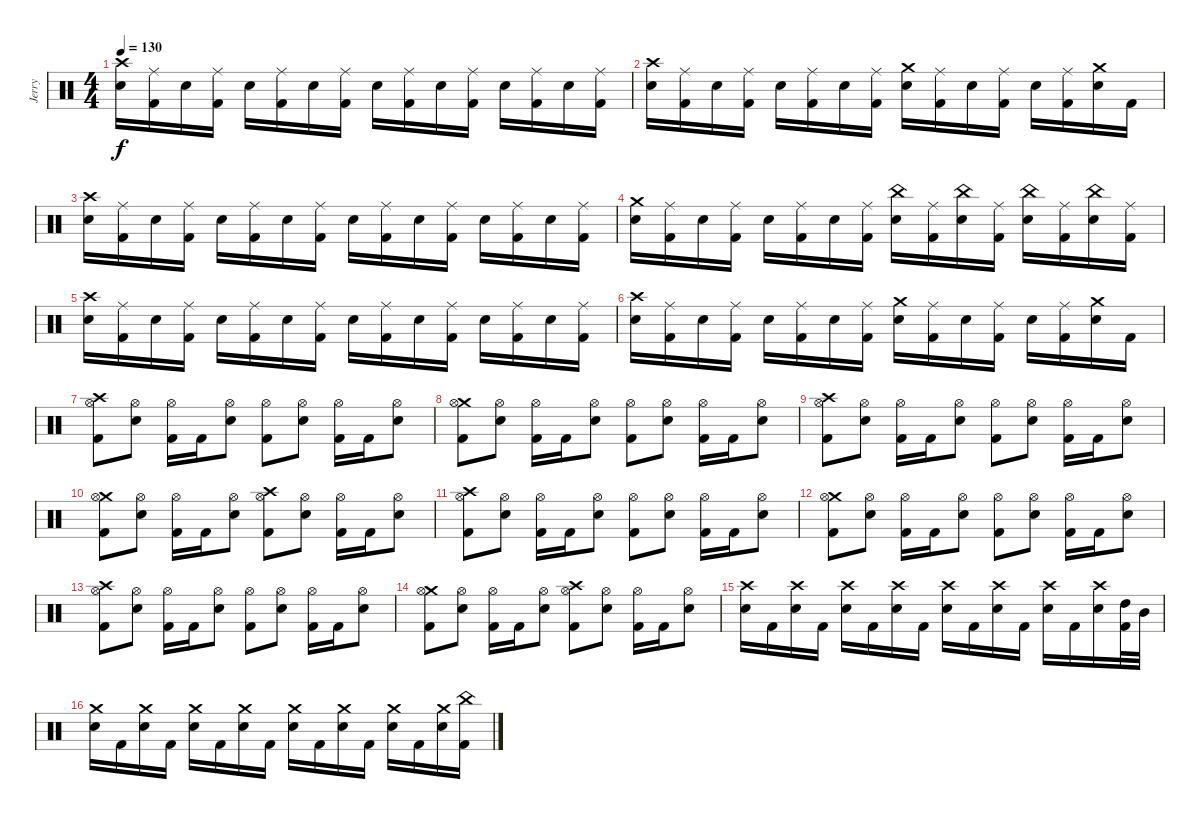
\track ("Jerry" "Jerry") {instrument percussion}
\staff {score}
\articulation defaults
\ts (4 4)
\tempo 130
\clef neutral
\ks c
("Crash high (hit)" "Electric Snare (hit)").16{dy f} ("Ride (middle)" "Kick (hit) 2").16 "Electric Snare (hit)".16 ("Ride (middle)" "Kick (hit) 2").16 "Electric Snare (hit)".16 ("Ride (middle)" "Kick (hit) 2").16 "Electric Snare (hit)".16 ("Ride (middle)" "Kick (hit) 2").16 "Electric Snare (hit)".16 ("Ride (middle)" "Kick (hit) 2").16 "Electric Snare (hit)".16 ("Ride (middle)" "Kick (hit) 2").16 "Electric Snare (hit)".16 ("Ride (middle)" "Kick (hit) 2").16 "Electric Snare (hit)".16 ("Ride (middle)" "Kick (hit) 2").16 |
("Crash high (hit)" "Electric Snare (hit)").16 ("Ride (middle)" "Kick (hit) 2").16 "Electric Snare (hit)".16 ("Ride (middle)" "Kick (hit) 2").16 "Electric Snare (hit)".16 ("Ride (middle)" "Kick (hit) 2").16 "Electric Snare (hit)".16 ("Ride (middle)" "Kick (hit) 2").16 ("Crash medium (hit)" "Electric Snare (hit)").16 ("Ride (middle)" "Kick (hit) 2").16 "Electric Snare (hit)".16 ("Ride (middle)" "Kick (hit) 2").16 "Electric Snare (hit)".16 ("Ride (middle)" "Kick (hit) 2").16 ("Crash medium (hit)" "Electric Snare (hit)").16 "Kick (hit) 2".16 |
("Crash high (hit)" "Electric Snare (hit)").16 ("Ride (middle)" "Kick (hit) 2").16 "Electric Snare (hit)".16 ("Ride (middle)" "Kick (hit) 2").16 "Electric Snare (hit)".16 ("Ride (middle)" "Kick (hit) 2").16 "Electric Snare (hit)".16 ("Ride (middle)" "Kick (hit) 2").16 "Electric Snare (hit)".16 ("Ride (middle)" "Kick (hit) 2").16 "Electric Snare (hit)".16 ("Ride (middle)" "Kick (hit) 2").16 "Electric Snare (hit)".16 ("Ride (middle)" "Kick (hit) 2").16 "Electric Snare (hit)".16 ("Ride (middle)" "Kick (hit) 2").16 |
("Crash medium (hit)" "Electric Snare (hit)").16 ("Ride (middle)" "Kick (hit) 2").16 "Electric Snare (hit)".16 ("Ride (middle)" "Kick (hit) 2").16 "Electric Snare (hit)".16 ("Ride (middle)" "Kick (hit) 2").16 "Electric Snare (hit)".16 ("Ride (middle)" "Kick (hit) 2").16 ("China (hit)" "Electric Snare (hit)").16 ("Ride (middle)" "Kick (hit) 2").16 ("China (hit)" "Electric Snare (hit)").16 ("Ride (middle)" "Kick (hit) 2").16 ("China (hit)" "Electric Snare (hit)").16 ("Ride (middle)" "Kick (hit) 2").16 ("China (hit)" "Electric Snare (hit)").16 ("Ride (middle)" "Kick (hit) 2").16 |
("Crash high (hit)" "Electric Snare (hit)").16 ("Ride (middle)" "Kick (hit) 2").16 "Electric Snare (hit)".16 ("Ride (middle)" "Kick (hit) 2").16 "Electric Snare (hit)".16 ("Ride (middle)" "Kick (hit) 2").16 "Electric Snare (hit)".16 ("Ride (middle)" "Kick (hit) 2").16 "Electric Snare (hit)".16 ("Ride (middle)" "Kick (hit) 2").16 "Electric Snare (hit)".16 ("Ride (middle)" "Kick (hit) 2").16 "Electric Snare (hit)".16 ("Ride (middle)" "Kick (hit) 2").16 "Electric Snare (hit)".16 ("Ride (middle)" "Kick (hit) 2").16 |
("Crash high (hit)" "Electric Snare (hit)").16 ("Ride (middle)" "Kick (hit) 2").16 "Electric Snare (hit)".16 ("Ride (middle)" "Kick (hit) 2").16 "Electric Snare (hit)".16 ("Ride (middle)" "Kick (hit) 2").16 "Electric Snare (hit)".16 ("Ride (middle)" "Kick (hit) 2").16 ("Crash medium (hit)" "Electric Snare (hit)").16 ("Ride (middle)" "Kick (hit) 2").16 "Electric Snare (hit)".16 ("Ride (middle)" "Kick (hit) 2").16 "Electric Snare (hit)".16 ("Ride (middle)" "Kick (hit) 2").16 ("Crash medium (hit)" "Electric Snare (hit)").16 "Kick (hit) 2".16 |
("Crash high (hit)" "Hi-Hat (open)" "Kick (hit) 2").8 ("Hi-Hat (open)" "Electric Snare (hit)").8 ("Hi-Hat (open)" "Kick (hit) 2").16 "Kick (hit) 2".16 ("Hi-Hat (open)" "Electric Snare (hit)").8 ("Hi-Hat (open)" "Kick (hit) 2").8 ("Hi-Hat (open)" "Electric Snare (hit)").8 ("Hi-Hat (open)" "Kick (hit) 2").16 "Kick (hit) 2".16 ("Hi-Hat (open)" "Electric Snare (hit)").8 |
("Crash medium (hit)" "Hi-Hat (open)" "Kick (hit) 2").8 ("Hi-Hat (open)" "Electric Snare (hit)").8 ("Hi-Hat (open)" "Kick (hit) 2").16 "Kick (hit) 2".16 ("Hi-Hat (open)" "Electric Snare (hit)").8 ("Hi-Hat (open)" "Kick (hit) 2").8 ("Hi-Hat (open)" "Electric Snare (hit)").8 ("Hi-Hat (open)" "Kick (hit) 2").16 "Kick (hit) 2".16 ("Hi-Hat (open)" "Electric Snare (hit)").8 |
("Crash high (hit)" "Hi-Hat (open)" "Kick (hit) 2").8 ("Hi-Hat (open)" "Electric Snare (hit)").8 ("Hi-Hat (open)" "Kick (hit) 2").16 "Kick (hit) 2".16 ("Hi-Hat (open)" "Electric Snare (hit)").8 ("Hi-Hat (open)" "Kick (hit) 2").8 ("Hi-Hat (open)" "Electric Snare (hit)").8 ("Hi-Hat (open)" "Kick (hit) 2").16 "Kick (hit) 2".16 ("Hi-Hat (open)" "Electric Snare (hit)").8 |
("Crash medium (hit)" "Hi-Hat (open)" "Kick (hit) 2").8 ("Hi-Hat (open)" "Electric Snare (hit)").8 ("Hi-Hat (open)" "Kick (hit) 2").16 "Kick (hit) 2".16 ("Hi-Hat (open)" "Electric Snare (hit)").8 ("Crash high (hit)" "Hi-Hat (open)" "Kick (hit) 2").8 ("Hi-Hat (open)" "Electric Snare (hit)").8 ("Hi-Hat (open)" "Kick (hit) 2").16 "Kick (hit) 2".16 ("Hi-Hat (open)" "Electric Snare (hit)").8 |
("Crash high (hit)" "Hi-Hat (open)" "Kick (hit) 2").8 ("Hi-Hat (open)" "Electric Snare (hit)").8 ("Hi-Hat (open)" "Kick (hit) 2").16 "Kick (hit) 2".16 ("Hi-Hat (open)" "Electric Snare (hit)").8 ("Hi-Hat (open)" "Kick (hit) 2").8 ("Hi-Hat (open)" "Electric Snare (hit)").8 ("Hi-Hat (open)" "Kick (hit) 2").16 "Kick (hit) 2".16 ("Hi-Hat (open)" "Electric Snare (hit)").8 |
("Crash medium (hit)" "Hi-Hat (open)" "Kick (hit) 2").8 ("Hi-Hat (open)" "Electric Snare (hit)").8 ("Hi-Hat (open)" "Kick (hit) 2").16 "Kick (hit) 2".16 ("Hi-Hat (open)" "Electric Snare (hit)").8 ("Hi-Hat (open)" "Kick (hit) 2").8 ("Hi-Hat (open)" "Electric Snare (hit)").8 ("Hi-Hat (open)" "Kick (hit) 2").16 "Kick (hit) 2".16 ("Hi-Hat (open)" "Electric Snare (hit)").8 |
("Crash high (hit)" "Hi-Hat (open)" "Kick (hit) 2").8 ("Hi-Hat (open)" "Electric Snare (hit)").8 ("Hi-Hat (open)" "Kick (hit) 2").16 "Kick (hit) 2".16 ("Hi-Hat (open)" "Electric Snare (hit)").8 ("Hi-Hat (open)" "Kick (hit) 2").8 ("Hi-Hat (open)" "Electric Snare (hit)").8 ("Hi-Hat (open)" "Kick (hit) 2").16 "Kick (hit) 2".16 ("Hi-Hat (open)" "Electric Snare (hit)").8 |
("Crash medium (hit)" "Hi-Hat (open)" "Kick (hit) 2").8 ("Hi-Hat (open)" "Electric Snare (hit)").8 ("Hi-Hat (open)" "Kick (hit) 2").16 "Kick (hit) 2".16 ("Hi-Hat (open)" "Electric Snare (hit)").8 ("Crash high (hit)" "Hi-Hat (open)" "Kick (hit) 2").8 ("Hi-Hat (open)" "Electric Snare (hit)").8 ("Hi-Hat (open)" "Kick (hit) 2").16 "Kick (hit) 2".16 ("Hi-Hat (open)" "Electric Snare (hit)").8 |
("Crash high (hit)" "Electric Snare (hit)").16 "Kick (hit) 2".16 ("Crash high (hit)" "Electric Snare (hit)").16 "Kick (hit) 2".16 ("Crash high (hit)" "Electric Snare (hit)").16 "Kick (hit) 2".16 ("Crash high (hit)" "Electric Snare (hit)").16 "Kick (hit) 2".16 ("Crash high (hit)" "Electric Snare (hit)").16 "Kick (hit) 2".16 ("Crash high (hit)" "Electric Snare (hit)").16 "Kick (hit) 2".16 ("Crash high (hit)" "Electric Snare (hit)").16 "Kick (hit) 2".16 ("Crash high (hit)" "Electric Snare (hit)").16 ("High Tom (hit)" "Kick (hit) 2").32 "Mid Tom (hit)".32 |
("Crash medium (hit)" "Electric Snare (hit)").16 "Kick (hit) 2".16 ("Crash medium (hit)" "Electric Snare (hit)").16 "Kick (hit) 2".16 ("Crash medium (hit)" "Electric Snare (hit)").16 "Kick (hit) 2".16 ("Crash medium (hit)" "Electric Snare (hit)").16 "Kick (hit) 2".16 ("Crash medium (hit)" "Electric Snare (hit)").16 "Kick (hit) 2".16 ("Crash medium (hit)" "Electric Snare (hit)").16 "Kick (hit) 2".16 ("Crash medium (hit)" "Electric Snare (hit)").16 "Kick (hit) 2".16 ("Crash medium (hit)" "Electric Snare (hit)").16 ("China (hit)" "Kick (hit) 2").16
